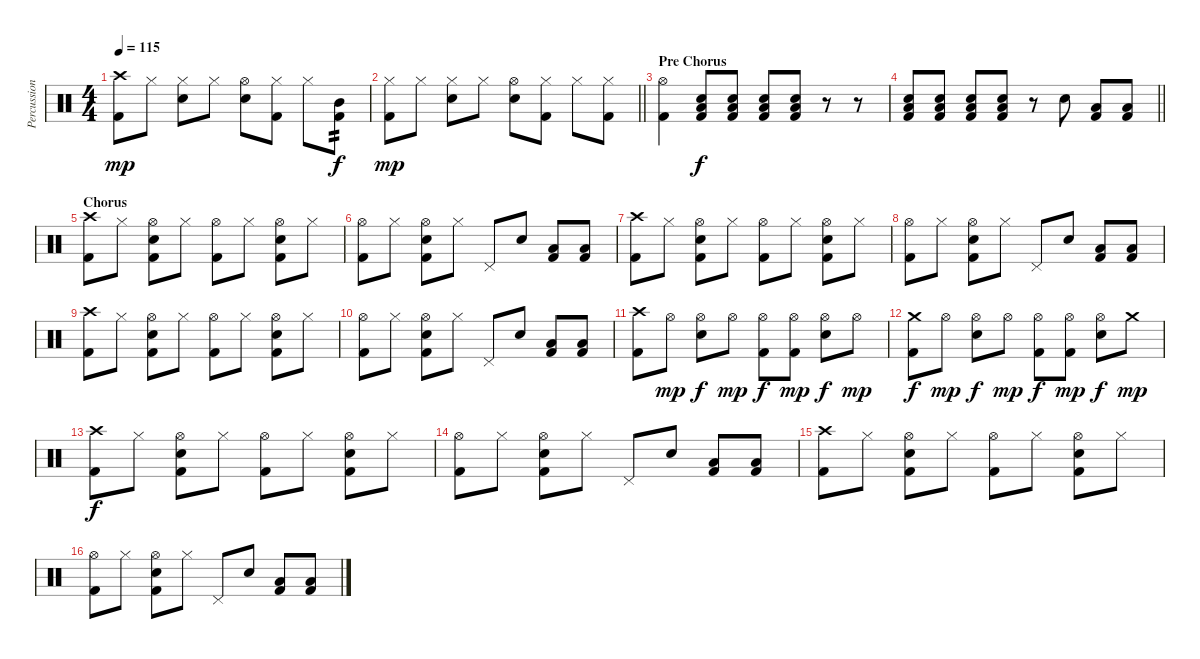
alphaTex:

\track ("Percussion" "Percussion") {instrument percussion}
\staff {score}
\articulation defaults
\ts (4 4)
\tempo 115
\clef neutral
\ks c
("Crash high (hit)" "Kick (hit) 2").8{dy mp} "Hi-Hat (closed)".8 ("Hi-Hat (closed)" "Electric Snare (hit)").8 "Hi-Hat (closed)".8 ("Hi-Hat (open)" "Electric Snare (hit)").8 ("Hi-Hat (closed)" "Kick (hit) 2").8 "Hi-Hat (closed)".8 ("Mid Tom (hit)" "Kick (hit) 2").8{tp 2 dy f} |
\barLineRight lightlight
("Hi-Hat (closed)" "Kick (hit) 2").8{dy mp} "Hi-Hat (closed)".8 ("Hi-Hat (closed)" "Electric Snare (hit)").8 "Hi-Hat (closed)".8 ("Hi-Hat (open)" "Electric Snare (hit)").8 ("Hi-Hat (closed)" "Kick (hit) 2").8 "Hi-Hat (closed)".8 ("Hi-Hat (closed)" "Kick (hit) 2").8 |
\section ("" "Pre Chorus")
("Hi-Hat (open)" "Kick (hit) 2").4 ("Low Floor Tom (hit)" "Electric Snare (hit)" "Kick (hit) 2").8{dy f} ("Low Floor Tom (hit)" "Electric Snare (hit)" "Kick (hit) 2").8 ("Low Floor Tom (hit)" "Electric Snare (hit)" "Kick (hit) 2").8 ("Low Floor Tom (hit)" "Electric Snare (hit)" "Kick (hit) 2").8 r.8 r.8 |
\barLineRight lightlight
("Low Floor Tom (hit)" "Electric Snare (hit)" "Kick (hit) 2").8 ("Low Floor Tom (hit)" "Electric Snare (hit)" "Kick (hit) 2").8 ("Low Floor Tom (hit)" "Electric Snare (hit)" "Kick (hit) 2").8 ("Low Floor Tom (hit)" "Electric Snare (hit)" "Kick (hit) 2").8 r.8 "Electric Snare (hit)".8 ("Low Tom (hit)" "Kick (hit) 2").8 ("Low Floor Tom (hit)" "Kick (hit) 2").8 |
\section ("" "Chorus")
("Crash high (hit)" "Kick (hit) 2").8 "Hi-Hat (closed)".8 ("Hi-Hat (open)" "Electric Snare (hit)" "Kick (hit) 2").8 "Hi-Hat (closed)".8 ("Hi-Hat (open)" "Kick (hit) 2").8 "Hi-Hat (closed)".8 ("Hi-Hat (open)" "Electric Snare (hit)" "Kick (hit) 2").8 "Hi-Hat (closed)".8 |
("Hi-Hat (open)" "Kick (hit) 2").8 "Hi-Hat (closed)".8 ("Hi-Hat (open)" "Electric Snare (hit)" "Kick (hit) 2").8 "Hi-Hat (closed)".8 "Pedal Hi-Hat (hit)".8 "Electric Snare (hit)".8 ("Low Tom (hit)" "Kick (hit) 2").8 ("Low Floor Tom (hit)" "Kick (hit) 2").8 |
("Crash high (hit)" "Kick (hit) 2").8 "Hi-Hat (closed)".8 ("Hi-Hat (open)" "Electric Snare (hit)" "Kick (hit) 2").8 "Hi-Hat (closed)".8 ("Hi-Hat (open)" "Kick (hit) 2").8 "Hi-Hat (closed)".8 ("Hi-Hat (open)" "Electric Snare (hit)" "Kick (hit) 2").8 "Hi-Hat (closed)".8 |
("Hi-Hat (open)" "Kick (hit) 2").8 "Hi-Hat (closed)".8 ("Hi-Hat (open)" "Electric Snare (hit)" "Kick (hit) 2").8 "Hi-Hat (closed)".8 "Pedal Hi-Hat (hit)".8 "Electric Snare (hit)".8 ("Low Tom (hit)" "Kick (hit) 2").8 ("Low Floor Tom (hit)" "Kick (hit) 2").8 |
("Crash high (hit)" "Kick (hit) 2").8 "Hi-Hat (closed)".8 ("Hi-Hat (open)" "Electric Snare (hit)" "Kick (hit) 2").8 "Hi-Hat (closed)".8 ("Hi-Hat (open)" "Kick (hit) 2").8 "Hi-Hat (closed)".8 ("Hi-Hat (open)" "Electric Snare (hit)" "Kick (hit) 2").8 "Hi-Hat (closed)".8 |
("Hi-Hat (open)" "Kick (hit) 2").8 "Hi-Hat (closed)".8 ("Hi-Hat (open)" "Electric Snare (hit)" "Kick (hit) 2").8 "Hi-Hat (closed)".8 "Pedal Hi-Hat (hit)".8 "Electric Snare (hit)".8 ("Low Tom (hit)" "Kick (hit) 2").8 ("Low Floor Tom (hit)" "Kick (hit) 2").8 |
("Crash high (hit)" "Kick (hit) 2").8 "Hi-Hat (open)".8{dy mp} ("Hi-Hat (open)" "Electric Snare (hit)").8{dy f} "Hi-Hat (open)".8{dy mp} ("Hi-Hat (open)" "Kick (hit) 2").8{dy f} ("Hi-Hat (open)" "Kick (hit) 2").8{dy mp} ("Hi-Hat (open)" "Electric Snare (hit)").8{dy f} "Hi-Hat (open)".8{dy mp} |
("Crash medium (hit)" "Kick (hit) 2").8{dy f} "Hi-Hat (open)".8{dy mp} ("Hi-Hat (open)" "Electric Snare (hit)").8{dy f} "Hi-Hat (open)".8{dy mp} ("Hi-Hat (open)" "Kick (hit) 2").8{dy f} ("Hi-Hat (open)" "Kick (hit) 2").8{dy mp} ("Hi-Hat (open)" "Electric Snare (hit)").8{dy f} "Crash medium (hit)".8{dy mp} |
("Crash high (hit)" "Kick (hit) 2").8{dy f} "Hi-Hat (closed)".8 ("Hi-Hat (open)" "Electric Snare (hit)" "Kick (hit) 2").8 "Hi-Hat (closed)".8 ("Hi-Hat (open)" "Kick (hit) 2").8 "Hi-Hat (closed)".8 ("Hi-Hat (open)" "Electric Snare (hit)" "Kick (hit) 2").8 "Hi-Hat (closed)".8 |
("Hi-Hat (open)" "Kick (hit) 2").8 "Hi-Hat (closed)".8 ("Hi-Hat (open)" "Electric Snare (hit)" "Kick (hit) 2").8 "Hi-Hat (closed)".8 "Pedal Hi-Hat (hit)".8 "Electric Snare (hit)".8 ("Low Tom (hit)" "Kick (hit) 2").8 ("Low Floor Tom (hit)" "Kick (hit) 2").8 |
("Crash high (hit)" "Kick (hit) 2").8 "Hi-Hat (closed)".8 ("Hi-Hat (open)" "Electric Snare (hit)" "Kick (hit) 2").8 "Hi-Hat (closed)".8 ("Hi-Hat (open)" "Kick (hit) 2").8 "Hi-Hat (closed)".8 ("Hi-Hat (open)" "Electric Snare (hit)" "Kick (hit) 2").8 "Hi-Hat (closed)".8 |
("Hi-Hat (open)" "Kick (hit) 2").8 "Hi-Hat (closed)".8 ("Hi-Hat (open)" "Electric Snare (hit)" "Kick (hit) 2").8 "Hi-Hat (closed)".8 "Pedal Hi-Hat (hit)".8 "Electric Snare (hit)".8 ("Low Tom (hit)" "Kick (hit) 2").8 ("Low Floor Tom (hit)" "Kick (hit) 2").8
